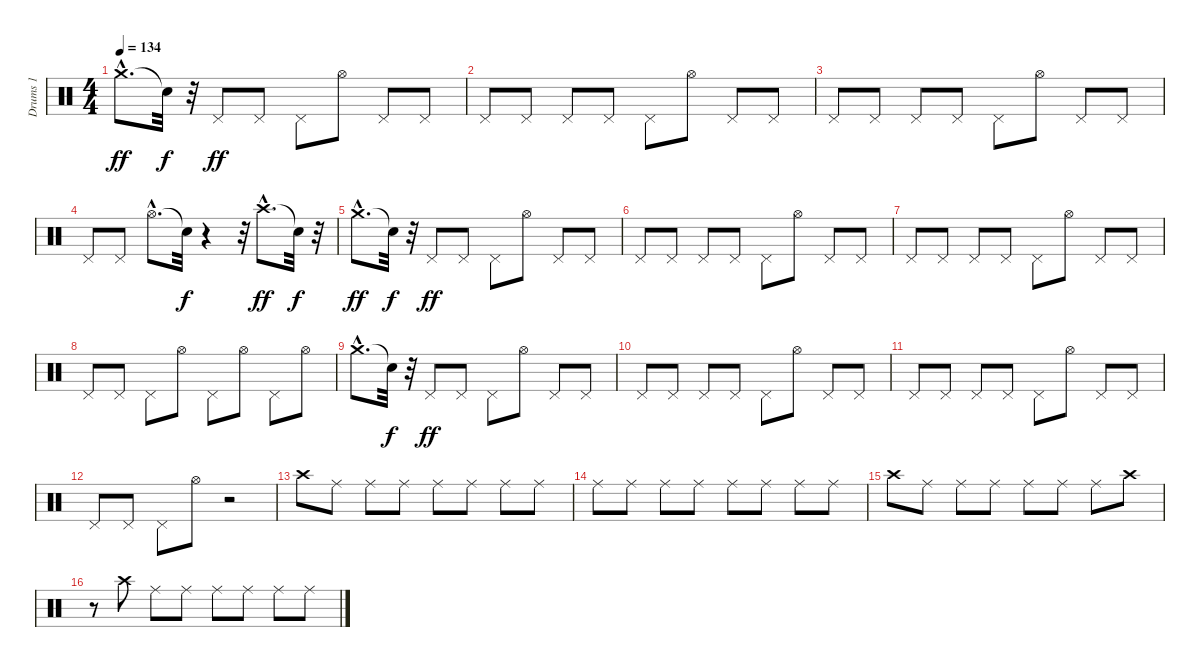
\track ("Drums 1" "Drums 1") {instrument percussion}
\staff {score}
\articulation defaults
\ts (4 4)
\tempo 134
\clef neutral
\ks c "Crash medium (hit)"{hac}.8{d dy ff} "Snare (hit)"{t}.32{dy f}
r.32 "Pedal Hi-Hat (hit)".8{dy ff} "Pedal Hi-Hat (hit)".8 "Pedal Hi-Hat (hit)".8 "Hi-Hat (open)".8 "Pedal Hi-Hat (hit)".8 "Pedal Hi-Hat (hit)".8 |
"Pedal Hi-Hat (hit)".8 "Pedal Hi-Hat (hit)".8 "Pedal Hi-Hat (hit)".8 "Pedal Hi-Hat (hit)".8 "Pedal Hi-Hat (hit)".8 "Hi-Hat (open)".8 "Pedal Hi-Hat (hit)".8 "Pedal Hi-Hat (hit)".8 |
"Pedal Hi-Hat (hit)".8 "Pedal Hi-Hat (hit)".8 "Pedal Hi-Hat (hit)".8 "Pedal Hi-Hat (hit)".8 "Pedal Hi-Hat (hit)".8 "Hi-Hat (open)".8 "Pedal Hi-Hat (hit)".8 "Pedal Hi-Hat (hit)".8 |
"Pedal Hi-Hat (hit)".8 "Pedal Hi-Hat (hit)".8 "Hi-Hat (open)"{hac}.8{d} "Snare (hit)"{t}.32{dy f} r.4 r.32 "Crash high (hit)"{hac}.8{d dy ff} "Snare (hit)"{t}.32{dy f} r.32 |
"Crash medium (hit)"{hac}.8{d dy ff} "Snare (hit)"{t}.32{dy f} r.32 "Pedal Hi-Hat (hit)".8{dy ff} "Pedal Hi-Hat (hit)".8 "Pedal Hi-Hat (hit)".8 "Hi-Hat (open)".8 "Pedal Hi-Hat (hit)".8 "Pedal Hi-Hat (hit)".8 |
"Pedal Hi-Hat (hit)".8 "Pedal Hi-Hat (hit)".8 "Pedal Hi-Hat (hit)".8 "Pedal Hi-Hat (hit)".8 "Pedal Hi-Hat (hit)".8 "Hi-Hat (open)".8 "Pedal Hi-Hat (hit)".8 "Pedal Hi-Hat (hit)".8 |
"Pedal Hi-Hat (hit)".8 "Pedal Hi-Hat (hit)".8 "Pedal Hi-Hat (hit)".8 "Pedal Hi-Hat (hit)".8 "Pedal Hi-Hat (hit)".8 "Hi-Hat (open)".8 "Pedal Hi-Hat (hit)".8 "Pedal Hi-Hat (hit)".8 |
"Pedal Hi-Hat (hit)".8 "Pedal Hi-Hat (hit)".8 "Pedal Hi-Hat (hit)".8 "Hi-Hat (open)".8 "Pedal Hi-Hat (hit)".8 "Hi-Hat (open)".8 "Pedal Hi-Hat (hit)".8 "Hi-Hat (open)".8 |
"Crash medium (hit)"{hac}.8{d} "Snare (hit)"{t}.32{dy f} r.32 "Pedal Hi-Hat (hit)".8{dy ff} "Pedal Hi-Hat (hit)".8 "Pedal Hi-Hat (hit)".8 "Hi-Hat (open)".8 "Pedal Hi-Hat (hit)".8 "Pedal Hi-Hat (hit)".8 |
"Pedal Hi-Hat (hit)".8 "Pedal Hi-Hat (hit)".8 "Pedal Hi-Hat (hit)".8 "Pedal Hi-Hat (hit)".8 "Pedal Hi-Hat (hit)".8 "Hi-Hat (open)".8 "Pedal Hi-Hat (hit)".8 "Pedal Hi-Hat (hit)".8 |
"Pedal Hi-Hat (hit)".8 "Pedal Hi-Hat (hit)".8 "Pedal Hi-Hat (hit)".8 "Pedal Hi-Hat (hit)".8 "Pedal Hi-Hat (hit)".8 "Hi-Hat (open)".8 "Pedal Hi-Hat (hit)".8 "Pedal Hi-Hat (hit)".8 |
"Pedal Hi-Hat (hit)".8 "Pedal Hi-Hat (hit)".8 "Pedal Hi-Hat (hit)".8 "Hi-Hat (open)".8 r.2 |
"Crash high (hit)".8 "Ride (middle)".8 "Ride (middle)".8 "Ride (middle)".8 "Ride (middle)".8 "Ride (middle)".8 "Ride (middle)".8 "Ride (middle)".8 |
"Ride (middle)".8 "Ride (middle)".8 "Ride (middle)".8 "Ride (middle)".8 "Ride (middle)".8 "Ride (middle)".8 "Ride (middle)".8 "Ride (middle)".8 |
"Crash high (hit)".8 "Ride (middle)".8 "Ride (middle)".8 "Ride (middle)".8 "Ride (middle)".8 "Ride (middle)".8 "Ride (middle)".8 "Crash high (hit)".8 |
r.8 "Crash high (hit)".8 "Ride (middle)".8 "Ride (middle)".8 "Ride (middle)".8 "Ride (middle)".8 "Ride (middle)".8 "Ride (middle)".8
